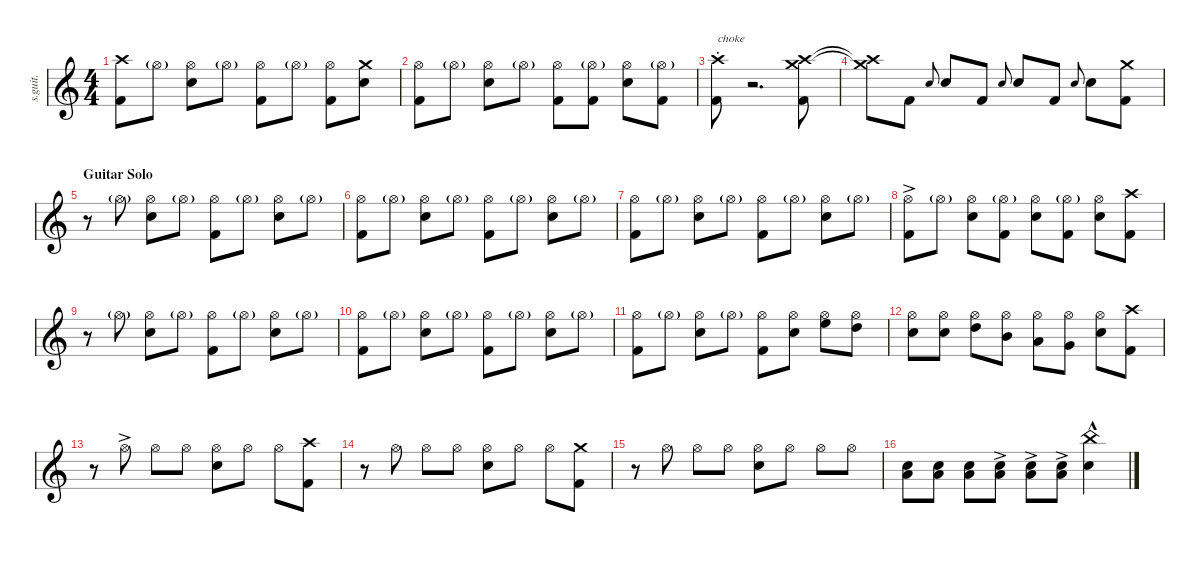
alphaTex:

\defaultSystemsLayout 4
\hideDynamics
\bracketExtendMode nobrackets
\track ("Lars Ulrich" "s.guit.") {instrument percussion}
\staff {score}
\articulation defaults
\ts (4 4)
\tempo (124 hide)
\clef g2
\ks c
("Crash high (hit)" "Kick (hit) 2").8{lyrics (0 "") lyrics (1 "") lyrics (2 "") lyrics (3 "") lyrics (4 "") dy f} "Hi-Hat (open)"{g}.8{lyrics (0 "") lyrics (1 "") lyrics (2 "") lyrics (3 "") lyrics (4 "") dy p} ("Hi-Hat (open)" "Snare (hit) 2").8{lyrics (0 "") lyrics (1 "") lyrics (2 "") lyrics (3 "") lyrics (4 "") dy f} "Hi-Hat (open)"{g}.8{lyrics (0 "") lyrics (1 "") lyrics (2 "") lyrics (3 "") lyrics (4 "") dy p} ("Hi-Hat (open)" "Kick (hit) 2").8{lyrics (0 "") lyrics (1 "") lyrics (2 "") lyrics (3 "") lyrics (4 "") dy f} "Hi-Hat (open)"{g}.8{lyrics (0 "") lyrics (1 "") lyrics (2 "") lyrics (3 "") lyrics (4 "") dy p} ("Hi-Hat (open)" "Kick (hit) 2").8{lyrics (0 "") lyrics (1 "") lyrics (2 "") lyrics (3 "") lyrics (4 "") dy f} ("Crash medium (hit)" "Snare (hit) 2").8{lyrics (0 "") lyrics (1 "") lyrics (2 "") lyrics (3 "") lyrics (4 "")} |
("Hi-Hat (open)" "Kick (hit) 2").8{lyrics (0 "") lyrics (1 "") lyrics (2 "") lyrics (3 "") lyrics (4 "")} "Hi-Hat (open)"{g}.8{lyrics (0 "") lyrics (1 "") lyrics (2 "") lyrics (3 "") lyrics (4 "") dy p} ("Hi-Hat (open)" "Snare (hit) 2").8{lyrics (0 "") lyrics (1 "") lyrics (2 "") lyrics (3 "") lyrics (4 "") dy f} "Hi-Hat (open)"{g}.8{lyrics (0 "") lyrics (1 "") lyrics (2 "") lyrics (3 "") lyrics (4 "") dy p} ("Hi-Hat (open)" "Kick (hit) 2").8{lyrics (0 "") lyrics (1 "") lyrics (2 "") lyrics (3 "") lyrics (4 "") dy f} ("Hi-Hat (open)"{g} "Kick (hit) 2").8{lyrics (0 "") lyrics (1 "") lyrics (2 "") lyrics (3 "") lyrics (4 "")} ("Hi-Hat (open)" "Snare (hit) 2").8{lyrics (0 "") lyrics (1 "") lyrics (2 "") lyrics (3 "") lyrics (4 "")} ("Hi-Hat (open)"{g} "Kick (hit) 2").8{lyrics (0 "") lyrics (1 "") lyrics (2 "") lyrics (3 "") lyrics (4 "")} |
("Crash high (hit)"{st} "Kick (hit) 2").8{txt "choke" lyrics (0 "") lyrics (1 "") lyrics (2 "") lyrics (3 "") lyrics (4 "")} r.2{d} ("Crash high (hit)" "Crash medium (hit)" "Kick (hit) 2").8{lyrics (0 "") lyrics (1 "") lyrics (2 "") lyrics (3 "") lyrics (4 "")} |
("Crash high (hit)"{t} "Crash medium (hit)"{t}).8{lyrics (0 "") lyrics (1 "") lyrics (2 "") lyrics (3 "") lyrics (4 "")} "Kick (hit) 2".8{lyrics (0 "") lyrics (1 "") lyrics (2 "") lyrics (3 "") lyrics (4 "")} "Snare (hit) 2".8{lyrics (0 "") lyrics (1 "") lyrics (2 "") lyrics (3 "") lyrics (4 "") gr onbeat} "Snare (hit) 2".8{lyrics (0 "") lyrics (1 "") lyrics (2 "") lyrics (3 "") lyrics (4 "")} "Kick (hit) 2".8{lyrics (0 "") lyrics (1 "") lyrics (2 "") lyrics (3 "") lyrics (4 "")} "Snare (hit) 2".8{lyrics (0 "") lyrics (1 "") lyrics (2 "") lyrics (3 "") lyrics (4 "") gr onbeat} "Snare (hit) 2".8{lyrics (0 "") lyrics (1 "") lyrics (2 "") lyrics (3 "") lyrics (4 "")} "Kick (hit) 2".8{lyrics (0 "") lyrics (1 "") lyrics (2 "") lyrics (3 "") lyrics (4 "")} "Snare (hit) 2".8{lyrics (0 "") lyrics (1 "") lyrics (2 "") lyrics (3 "") lyrics (4 "") gr onbeat} "Snare (hit) 2".8{lyrics (0 "") lyrics (1 "") lyrics (2 "") lyrics (3 "") lyrics (4 "")} ("Kick (hit) 2" "Crash medium (hit)").8{lyrics (0 "") lyrics (1 "") lyrics (2 "") lyrics (3 "") lyrics (4 "")} |
\section ("" "Guitar Solo")
r.8 "Hi-Hat (open)"{g}.8{lyrics (0 "") lyrics (1 "") lyrics (2 "") lyrics (3 "") lyrics (4 "") dy mp} ("Hi-Hat (open)" "Snare (hit) 2").8{lyrics (0 "") lyrics (1 "") lyrics (2 "") lyrics (3 "") lyrics (4 "") dy f} "Hi-Hat (open)"{g}.8{lyrics (0 "") lyrics (1 "") lyrics (2 "") lyrics (3 "") lyrics (4 "") dy p} ("Hi-Hat (open)" "Kick (hit) 2").8{lyrics (0 "") lyrics (1 "") lyrics (2 "") lyrics (3 "") lyrics (4 "") dy f} "Hi-Hat (open)"{g}.8{lyrics (0 "") lyrics (1 "") lyrics (2 "") lyrics (3 "") lyrics (4 "") dy p} ("Hi-Hat (open)" "Snare (hit) 2").8{lyrics (0 "") lyrics (1 "") lyrics (2 "") lyrics (3 "") lyrics (4 "") dy f} "Hi-Hat (open)"{g}.8{lyrics (0 "") lyrics (1 "") lyrics (2 "") lyrics (3 "") lyrics (4 "") dy p} |
("Hi-Hat (open)" "Kick (hit) 2").8{lyrics (0 "") lyrics (1 "") lyrics (2 "") lyrics (3 "") lyrics (4 "") dy f} "Hi-Hat (open)"{g}.8{lyrics (0 "") lyrics (1 "") lyrics (2 "") lyrics (3 "") lyrics (4 "") dy p} ("Hi-Hat (open)" "Snare (hit) 2").8{lyrics (0 "") lyrics (1 "") lyrics (2 "") lyrics (3 "") lyrics (4 "") dy f} "Hi-Hat (open)"{g}.8{lyrics (0 "") lyrics (1 "") lyrics (2 "") lyrics (3 "") lyrics (4 "") dy p} ("Hi-Hat (open)" "Kick (hit) 2").8{lyrics (0 "") lyrics (1 "") lyrics (2 "") lyrics (3 "") lyrics (4 "") dy f} "Hi-Hat (open)"{g}.8{lyrics (0 "") lyrics (1 "") lyrics (2 "") lyrics (3 "") lyrics (4 "") dy p} ("Hi-Hat (open)" "Snare (hit) 2").8{lyrics (0 "") lyrics (1 "") lyrics (2 "") lyrics (3 "") lyrics (4 "") dy f} "Hi-Hat (open)"{g}.8{lyrics (0 "") lyrics (1 "") lyrics (2 "") lyrics (3 "") lyrics (4 "") dy p} |
("Hi-Hat (open)" "Kick (hit) 2").8{lyrics (0 "") lyrics (1 "") lyrics (2 "") lyrics (3 "") lyrics (4 "") dy f} "Hi-Hat (open)"{g}.8{lyrics (0 "") lyrics (1 "") lyrics (2 "") lyrics (3 "") lyrics (4 "") dy p} ("Hi-Hat (open)" "Snare (hit) 2").8{lyrics (0 "") lyrics (1 "") lyrics (2 "") lyrics (3 "") lyrics (4 "") dy f} "Hi-Hat (open)"{g}.8{lyrics (0 "") lyrics (1 "") lyrics (2 "") lyrics (3 "") lyrics (4 "") dy p} ("Hi-Hat (open)" "Kick (hit) 2").8{lyrics (0 "") lyrics (1 "") lyrics (2 "") lyrics (3 "") lyrics (4 "") dy f} "Hi-Hat (open)"{g}.8{lyrics (0 "") lyrics (1 "") lyrics (2 "") lyrics (3 "") lyrics (4 "") dy p} ("Hi-Hat (open)" "Snare (hit) 2").8{lyrics (0 "") lyrics (1 "") lyrics (2 "") lyrics (3 "") lyrics (4 "") dy f} "Hi-Hat (open)"{g}.8{lyrics (0 "") lyrics (1 "") lyrics (2 "") lyrics (3 "") lyrics (4 "") dy p} |
("Hi-Hat (open)"{ac} "Kick (hit) 2").8{lyrics (0 "") lyrics (1 "") lyrics (2 "") lyrics (3 "") lyrics (4 "") dy f} "Hi-Hat (open)"{g}.8{lyrics (0 "") lyrics (1 "") lyrics (2 "") lyrics (3 "") lyrics (4 "") dy p} ("Hi-Hat (open)" "Snare (hit) 2").8{lyrics (0 "") lyrics (1 "") lyrics (2 "") lyrics (3 "") lyrics (4 "") dy f} ("Hi-Hat (open)"{g} "Kick (hit) 2").8{lyrics (0 "") lyrics (1 "") lyrics (2 "") lyrics (3 "") lyrics (4 "")} ("Snare (hit) 2" "Hi-Hat (open)").8{lyrics (0 "") lyrics (1 "") lyrics (2 "") lyrics (3 "") lyrics (4 "")} ("Hi-Hat (open)"{g} "Kick (hit) 2").8{lyrics (0 "") lyrics (1 "") lyrics (2 "") lyrics (3 "") lyrics (4 "")} ("Snare (hit) 2" "Hi-Hat (open)").8{lyrics (0 "") lyrics (1 "") lyrics (2 "") lyrics (3 "") lyrics (4 "")} ("Crash high (hit)" "Kick (hit) 2").8{lyrics (0 "") lyrics (1 "") lyrics (2 "") lyrics (3 "") lyrics (4 "")} |
r.8 "Hi-Hat (open)"{g}.8{lyrics (0 "") lyrics (1 "") lyrics (2 "") lyrics (3 "") lyrics (4 "") dy mp} ("Hi-Hat (open)" "Snare (hit) 2").8{lyrics (0 "") lyrics (1 "") lyrics (2 "") lyrics (3 "") lyrics (4 "") dy f} "Hi-Hat (open)"{g}.8{lyrics (0 "") lyrics (1 "") lyrics (2 "") lyrics (3 "") lyrics (4 "") dy p} ("Hi-Hat (open)" "Kick (hit) 2").8{lyrics (0 "") lyrics (1 "") lyrics (2 "") lyrics (3 "") lyrics (4 "") dy f} "Hi-Hat (open)"{g}.8{lyrics (0 "") lyrics (1 "") lyrics (2 "") lyrics (3 "") lyrics (4 "") dy p} ("Hi-Hat (open)" "Snare (hit) 2").8{lyrics (0 "") lyrics (1 "") lyrics (2 "") lyrics (3 "") lyrics (4 "") dy f} "Hi-Hat (open)"{g}.8{lyrics (0 "") lyrics (1 "") lyrics (2 "") lyrics (3 "") lyrics (4 "") dy p} |
("Hi-Hat (open)" "Kick (hit) 2").8{lyrics (0 "") lyrics (1 "") lyrics (2 "") lyrics (3 "") lyrics (4 "") dy f} "Hi-Hat (open)"{g}.8{lyrics (0 "") lyrics (1 "") lyrics (2 "") lyrics (3 "") lyrics (4 "") dy p} ("Hi-Hat (open)" "Snare (hit) 2").8{lyrics (0 "") lyrics (1 "") lyrics (2 "") lyrics (3 "") lyrics (4 "") dy f} "Hi-Hat (open)"{g}.8{lyrics (0 "") lyrics (1 "") lyrics (2 "") lyrics (3 "") lyrics (4 "") dy p} ("Hi-Hat (open)" "Kick (hit) 2").8{lyrics (0 "") lyrics (1 "") lyrics (2 "") lyrics (3 "") lyrics (4 "") dy f} "Hi-Hat (open)"{g}.8{lyrics (0 "") lyrics (1 "") lyrics (2 "") lyrics (3 "") lyrics (4 "") dy p} ("Hi-Hat (open)" "Snare (hit) 2").8{lyrics (0 "") lyrics (1 "") lyrics (2 "") lyrics (3 "") lyrics (4 "") dy f} "Hi-Hat (open)"{g}.8{lyrics (0 "") lyrics (1 "") lyrics (2 "") lyrics (3 "") lyrics (4 "") dy p} |
("Hi-Hat (open)" "Kick (hit) 2").8{lyrics (0 "") lyrics (1 "") lyrics (2 "") lyrics (3 "") lyrics (4 "") dy f} "Hi-Hat (open)"{g}.8{lyrics (0 "") lyrics (1 "") lyrics (2 "") lyrics (3 "") lyrics (4 "") dy p} ("Hi-Hat (open)" "Snare (hit) 2").8{lyrics (0 "") lyrics (1 "") lyrics (2 "") lyrics (3 "") lyrics (4 "") dy f} "Hi-Hat (open)"{g}.8{lyrics (0 "") lyrics (1 "") lyrics (2 "") lyrics (3 "") lyrics (4 "") dy p} ("Hi-Hat (open)" "Kick (hit) 2").8{lyrics (0 "") lyrics (1 "") lyrics (2 "") lyrics (3 "") lyrics (4 "") dy f} ("Hi-Hat (open)" "Snare (hit) 2").8{lyrics (0 "") lyrics (1 "") lyrics (2 "") lyrics (3 "") lyrics (4 "")} ("High Floor Tom (hit)" "Hi-Hat (open)").8{lyrics (0 "") lyrics (1 "") lyrics (2 "") lyrics (3 "") lyrics (4 "") dy ff} ("Hi-Hat (open)" "High Tom (hit)").8{lyrics (0 "") lyrics (1 "") lyrics (2 "") lyrics (3 "") lyrics (4 "") dy f} |
("Hi-Hat (open)" "Snare (hit) 2").8{lyrics (0 "") lyrics (1 "") lyrics (2 "") lyrics (3 "") lyrics (4 "")} ("Hi-Hat (open)" "Snare (hit) 2").8{lyrics (0 "") lyrics (1 "") lyrics (2 "") lyrics (3 "") lyrics (4 "")} ("Hi-Hat (open)" "High Tom (hit)").8{lyrics (0 "") lyrics (1 "") lyrics (2 "") lyrics (3 "") lyrics (4 "")} ("Hi-Hat (open)" "Mid Tom (hit)").8{lyrics (0 "") lyrics (1 "") lyrics (2 "") lyrics (3 "") lyrics (4 "") dy ff} ("Hi-Hat (open)" "Low Floor Tom (hit)").8{lyrics (0 "") lyrics (1 "") lyrics (2 "") lyrics (3 "") lyrics (4 "")} ("Hi-Hat (open)" "Very Low Tom (hit)").8{lyrics (0 "") lyrics (1 "") lyrics (2 "") lyrics (3 "") lyrics (4 "") dy f} ("Hi-Hat (open)" "Snare (hit) 2").8{lyrics (0 "") lyrics (1 "") lyrics (2 "") lyrics (3 "") lyrics (4 "")} ("Crash high (hit)" "Kick (hit) 2").8{lyrics (0 "") lyrics (1 "") lyrics (2 "") lyrics (3 "") lyrics (4 "")} |
r.8 "Hi-Hat (open)"{ac}.8{lyrics (0 "") lyrics (1 "") lyrics (2 "") lyrics (3 "") lyrics (4 "") dy ff} "Hi-Hat (open)".8{lyrics (0 "") lyrics (1 "") lyrics (2 "") lyrics (3 "") lyrics (4 "")} "Hi-Hat (open)".8{lyrics (0 "") lyrics (1 "") lyrics (2 "") lyrics (3 "") lyrics (4 "")} ("Hi-Hat (open)" "Snare (hit) 2").8{lyrics (0 "") lyrics (1 "") lyrics (2 "") lyrics (3 "") lyrics (4 "")} "Hi-Hat (open)".8{lyrics (0 "") lyrics (1 "") lyrics (2 "") lyrics (3 "") lyrics (4 "")} "Hi-Hat (open)".8{lyrics (0 "") lyrics (1 "") lyrics (2 "") lyrics (3 "") lyrics (4 "")} ("Crash high (hit)" "Kick (hit) 2").8{lyrics (0 "") lyrics (1 "") lyrics (2 "") lyrics (3 "") lyrics (4 "")} |
r.8 "Hi-Hat (open)".8{lyrics (0 "") lyrics (1 "") lyrics (2 "") lyrics (3 "") lyrics (4 "")} "Hi-Hat (open)".8{lyrics (0 "") lyrics (1 "") lyrics (2 "") lyrics (3 "") lyrics (4 "")} "Hi-Hat (open)".8{lyrics (0 "") lyrics (1 "") lyrics (2 "") lyrics (3 "") lyrics (4 "")} ("Hi-Hat (open)" "Snare (hit) 2").8{lyrics (0 "") lyrics (1 "") lyrics (2 "") lyrics (3 "") lyrics (4 "")} "Hi-Hat (open)".8{lyrics (0 "") lyrics (1 "") lyrics (2 "") lyrics (3 "") lyrics (4 "")} "Hi-Hat (open)".8{lyrics (0 "") lyrics (1 "") lyrics (2 "") lyrics (3 "") lyrics (4 "")} ("Kick (hit) 2" "Crash medium (hit)").8{lyrics (0 "") lyrics (1 "") lyrics (2 "") lyrics (3 "") lyrics (4 "")} |
r.8 "Hi-Hat (open)".8{lyrics (0 "") lyrics (1 "") lyrics (2 "") lyrics (3 "") lyrics (4 "")} "Hi-Hat (open)".8{lyrics (0 "") lyrics (1 "") lyrics (2 "") lyrics (3 "") lyrics (4 "")} "Hi-Hat (open)".8{lyrics (0 "") lyrics (1 "") lyrics (2 "") lyrics (3 "") lyrics (4 "")} ("Hi-Hat (open)" "Snare (hit) 2").8{lyrics (0 "") lyrics (1 "") lyrics (2 "") lyrics (3 "") lyrics (4 "")} "Hi-Hat (open)".8{lyrics (0 "") lyrics (1 "") lyrics (2 "") lyrics (3 "") lyrics (4 "")} "Hi-Hat (open)".8{lyrics (0 "") lyrics (1 "") lyrics (2 "") lyrics (3 "") lyrics (4 "")} "Hi-Hat (open)".8{lyrics (0 "") lyrics (1 "") lyrics (2 "") lyrics (3 "") lyrics (4 "")} |
("Snare (hit) 2" "Low Floor Tom (hit)").8{lyrics (0 "") lyrics (1 "") lyrics (2 "") lyrics (3 "") lyrics (4 "")} ("Snare (hit) 2" "Low Floor Tom (hit)").8{lyrics (0 "") lyrics (1 "") lyrics (2 "") lyrics (3 "") lyrics (4 "")} ("Snare (hit) 2" "Low Floor Tom (hit)").8{lyrics (0 "") lyrics (1 "") lyrics (2 "") lyrics (3 "") lyrics (4 "")} ("Snare (hit) 2"{ac} "Low Floor Tom (hit)"{ac}).8{lyrics (0 "") lyrics (1 "") lyrics (2 "") lyrics (3 "") lyrics (4 "")} ("Snare (hit) 2"{ac} "Low Floor Tom (hit)"{ac}).8{lyrics (0 "") lyrics (1 "") lyrics (2 "") lyrics (3 "") lyrics (4 "")} ("Snare (hit) 2"{ac} "Low Floor Tom (hit)"{ac}).8{lyrics (0 "") lyrics (1 "") lyrics (2 "") lyrics (3 "") lyrics (4 "")} ("Snare (hit) 2" "China (hit)"{hac}).4{lyrics (0 "") lyrics (1 "") lyrics (2 "") lyrics (3 "") lyrics (4 "")}
